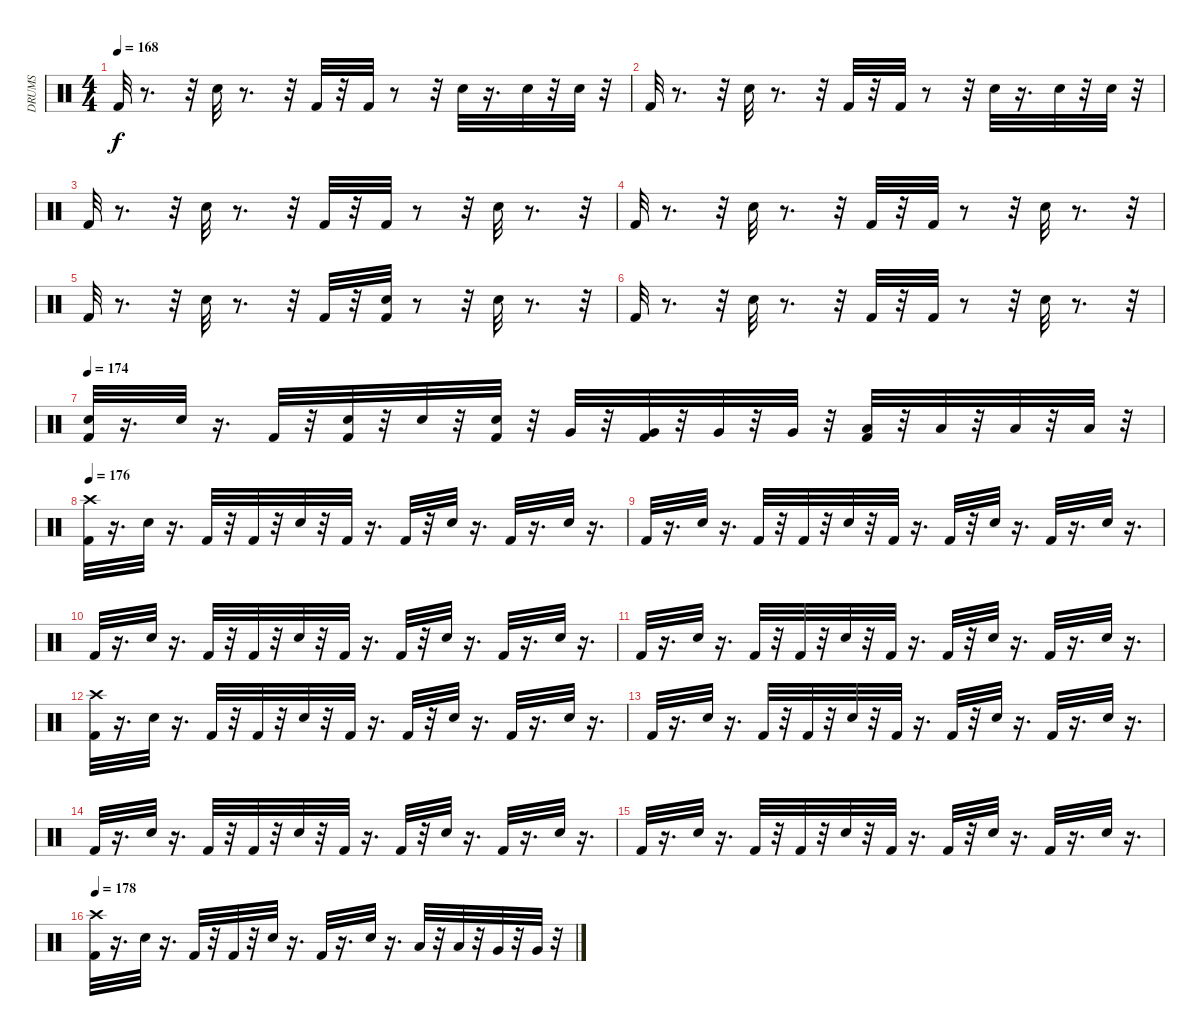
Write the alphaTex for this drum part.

\track ("DRUMS" "DRUMS") {instrument percussion}
\staff {score}
\articulation defaults
\ts (4 4)
\tempo 168
\clef neutral
\ks c "Kick (hit) 2".32{dy f}
r.8{d} r.32 "Electric Snare (hit)".32 r.8{d} r.32 "Kick (hit) 2".32 r.32 "Kick (hit) 2".32 r.8 r.32 "Electric Snare (hit)".32 r.16{d} "Electric Snare (hit)".32 r.32 "Electric Snare (hit)".32 r.32 |
"Kick (hit) 2".32 r.8{d} r.32 "Electric Snare (hit)".32 r.8{d} r.32 "Kick (hit) 2".32 r.32 "Kick (hit) 2".32 r.8 r.32 "Electric Snare (hit)".32 r.16{d} "Electric Snare (hit)".32 r.32 "Electric Snare (hit)".32 r.32 |
"Kick (hit) 2".32 r.8{d} r.32 "Electric Snare (hit)".32 r.8{d} r.32 "Kick (hit) 2".32 r.32 "Kick (hit) 2".32 r.8 r.32 "Electric Snare (hit)".32 r.8{d} r.32 |
"Kick (hit) 2".32 r.8{d} r.32 "Electric Snare (hit)".32 r.8{d} r.32 "Kick (hit) 2".32 r.32 "Kick (hit) 2".32 r.8 r.32 "Electric Snare (hit)".32 r.8{d} r.32 |
"Kick (hit) 2".32 r.8{d} r.32 "Electric Snare (hit)".32 r.8{d} r.32 "Kick (hit) 2".32 r.32 ("Kick (hit) 2" "Electric Snare (hit)").32 r.8 r.32 "Electric Snare (hit)".32 r.8{d} r.32 |
"Kick (hit) 2".32 r.8{d} r.32 "Electric Snare (hit)".32 r.8{d} r.32 "Kick (hit) 2".32 r.32 "Kick (hit) 2".32 r.8 r.32 "Electric Snare (hit)".32 r.8{d} r.32 |
\tempo 174
("Kick (hit) 2" "Electric Snare (hit)").32 r.16{d} "Electric Snare (hit)".32 r.16{d} "Kick (hit) 2".32 r.32 ("Kick (hit) 2" "Electric Snare (hit)").32 r.32 "Electric Snare (hit)".32 r.32 ("Kick (hit) 2" "Electric Snare (hit)").32 r.32 "Very Low Tom (hit)".32 r.32 ("Kick (hit) 2" "Very Low Tom (hit)").32 r.32 "Very Low Tom (hit)".32 r.32 "Very Low Tom (hit)".32 r.32 ("Kick (hit) 2" "Low Floor Tom (hit)").32 r.32 "Low Floor Tom (hit)".32 r.32 "Low Floor Tom (hit)".32 r.32 "Low Floor Tom (hit)".32 r.32 |
\tempo 176
("Kick (hit) 2" "Crash high (hit)").32 r.16{d} "Electric Snare (hit)".32 r.16{d} "Kick (hit) 2".32 r.32 "Kick (hit) 2".32 r.32 "Electric Snare (hit)".32 r.32 "Kick (hit) 2".32 r.16{d} "Kick (hit) 2".32 r.32 "Electric Snare (hit)".32 r.16{d} "Kick (hit) 2".32 r.16{d} "Electric Snare (hit)".32 r.16{d} |
"Kick (hit) 2".32 r.16{d} "Electric Snare (hit)".32 r.16{d} "Kick (hit) 2".32 r.32 "Kick (hit) 2".32 r.32 "Electric Snare (hit)".32 r.32 "Kick (hit) 2".32 r.16{d} "Kick (hit) 2".32 r.32 "Electric Snare (hit)".32 r.16{d} "Kick (hit) 2".32 r.16{d} "Electric Snare (hit)".32 r.16{d} |
"Kick (hit) 2".32 r.16{d} "Electric Snare (hit)".32 r.16{d} "Kick (hit) 2".32 r.32 "Kick (hit) 2".32 r.32 "Electric Snare (hit)".32 r.32 "Kick (hit) 2".32 r.16{d} "Kick (hit) 2".32 r.32 "Electric Snare (hit)".32 r.16{d} "Kick (hit) 2".32 r.16{d} "Electric Snare (hit)".32 r.16{d} |
"Kick (hit) 2".32 r.16{d} "Electric Snare (hit)".32 r.16{d} "Kick (hit) 2".32 r.32 "Kick (hit) 2".32 r.32 "Electric Snare (hit)".32 r.32 "Kick (hit) 2".32 r.16{d} "Kick (hit) 2".32 r.32 "Electric Snare (hit)".32 r.16{d} "Kick (hit) 2".32 r.16{d} "Electric Snare (hit)".32 r.16{d} |
("Kick (hit) 2" "Crash high (hit)").32 r.16{d} "Electric Snare (hit)".32 r.16{d} "Kick (hit) 2".32 r.32 "Kick (hit) 2".32 r.32 "Electric Snare (hit)".32 r.32 "Kick (hit) 2".32 r.16{d} "Kick (hit) 2".32 r.32 "Electric Snare (hit)".32 r.16{d} "Kick (hit) 2".32 r.16{d} "Electric Snare (hit)".32 r.16{d} |
"Kick (hit) 2".32 r.16{d} "Electric Snare (hit)".32 r.16{d} "Kick (hit) 2".32 r.32 "Kick (hit) 2".32 r.32 "Electric Snare (hit)".32 r.32 "Kick (hit) 2".32 r.16{d} "Kick (hit) 2".32 r.32 "Electric Snare (hit)".32 r.16{d} "Kick (hit) 2".32 r.16{d} "Electric Snare (hit)".32 r.16{d} |
"Kick (hit) 2".32 r.16{d} "Electric Snare (hit)".32 r.16{d} "Kick (hit) 2".32 r.32 "Kick (hit) 2".32 r.32 "Electric Snare (hit)".32 r.32 "Kick (hit) 2".32 r.16{d} "Kick (hit) 2".32 r.32 "Electric Snare (hit)".32 r.16{d} "Kick (hit) 2".32 r.16{d} "Electric Snare (hit)".32 r.16{d} |
"Kick (hit) 2".32 r.16{d} "Electric Snare (hit)".32 r.16{d} "Kick (hit) 2".32 r.32 "Kick (hit) 2".32 r.32 "Electric Snare (hit)".32 r.32 "Kick (hit) 2".32 r.16{d} "Kick (hit) 2".32 r.32 "Electric Snare (hit)".32 r.16{d} "Kick (hit) 2".32 r.16{d} "Electric Snare (hit)".32 r.16{d} |
\tempo 178
("Crash high (hit)" "Kick (hit) 2").32 r.16{d} "Electric Snare (hit)".32 r.16{d} "Kick (hit) 2".32 r.32 "Kick (hit) 2".32 r.32 "Electric Snare (hit)".32 r.16{d} "Kick (hit) 2".32 r.16{d} "Electric Snare (hit)".32 r.16{d} "Low Tom (hit)".32 r.32 "Low Tom (hit)".32 r.32 "Very Low Tom (hit)".32 r.32 "Very Low Tom (hit)".32 r.32
